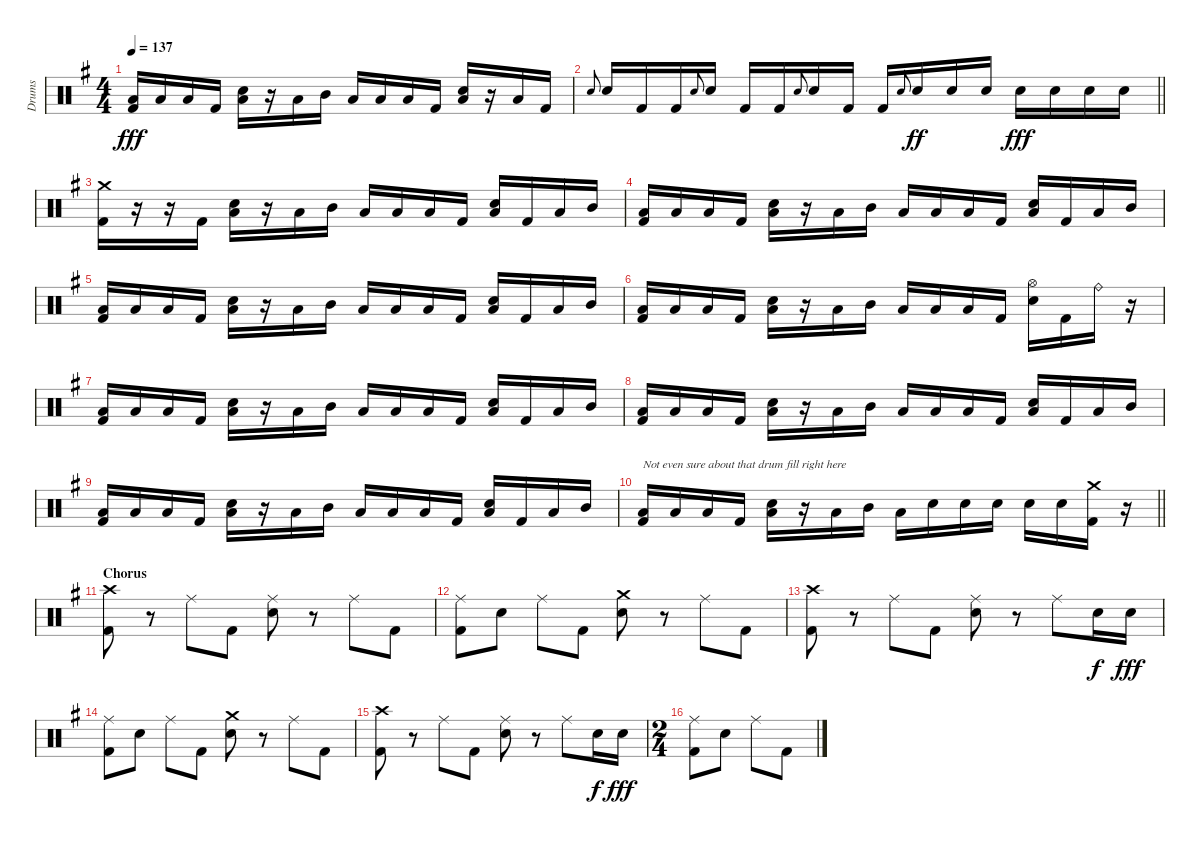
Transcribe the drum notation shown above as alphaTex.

\track ("Drums" "Drums") {instrument percussion}
\staff {score}
\articulation defaults
\ts (4 4)
\tempo 137
\clef neutral
\ks eminor
("Low Floor Tom (hit)" "Kick (hit) 2").16{dy fff} "Low Tom (hit)".16 "Low Floor Tom (hit)".16 "Kick (hit) 2".16 ("Electric Snare (hit)" "Low Floor Tom (hit)").16 r.16 "Low Floor Tom (hit)".16 "Mid Tom (hit)".16 "Low Floor Tom (hit)".16 "Low Tom (hit)".16 "Low Floor Tom (hit)".16 "Kick (hit) 2".16 ("Electric Snare (hit)" "Low Floor Tom (hit)").16 r.16 "Low Floor Tom (hit)".16 "Kick (hit) 2".16 |
\barLineRight lightlight "Electric Snare (hit)".8{gr onbeat} "Electric Snare (hit)".16 "Kick (hit) 2".16 "Kick (hit) 2".16 "Electric Snare (hit)".8{gr onbeat} "Electric Snare (hit)".16 "Kick (hit) 2".16 "Kick (hit) 2".16 "Electric Snare (hit)".8{gr onbeat} "Electric Snare (hit)".16 "Kick (hit) 2".16 "Kick (hit) 2".16 "Electric Snare (hit)".8{gr onbeat} "Electric Snare (hit)".16{dy ff} "Electric Snare (hit)".16 "Electric Snare (hit)".16 "Electric Snare (hit)".16{dy fff} "Electric Snare (hit)".16 "Electric Snare (hit)".16 "Electric Snare (hit)".16
|
("Crash medium (hit)" "Kick (hit) 2").16 r.16 r.16 "Kick (hit) 2".16 ("Electric Snare (hit)" "Low Floor Tom (hit)").16 r.16 "Low Floor Tom (hit)".16 "Mid Tom (hit)".16 "Low Floor Tom (hit)".16 "Low Tom (hit)".16 "Low Floor Tom (hit)".16 "Kick (hit) 2".16 ("Electric Snare (hit)" "Low Floor Tom (hit)").16 "Kick (hit) 2".16 "Low Floor Tom (hit)".16 "Mid Tom (hit)".16 |
("Low Floor Tom (hit)" "Kick (hit) 2").16 "Low Tom (hit)".16 "Low Floor Tom (hit)".16 "Kick (hit) 2".16 ("Electric Snare (hit)" "Low Floor Tom (hit)").16 r.16 "Low Floor Tom (hit)".16 "Mid Tom (hit)".16 "Low Floor Tom (hit)".16 "Low Tom (hit)".16 "Low Floor Tom (hit)".16 "Kick (hit) 2".16 ("Electric Snare (hit)" "Low Floor Tom (hit)").16 "Kick (hit) 2".16 "Low Floor Tom (hit)".16 "Mid Tom (hit)".16 |
("Low Floor Tom (hit)" "Kick (hit) 2").16 "Low Tom (hit)".16 "Low Floor Tom (hit)".16 "Kick (hit) 2".16 ("Electric Snare (hit)" "Low Floor Tom (hit)").16 r.16 "Low Floor Tom (hit)".16 "Mid Tom (hit)".16 "Low Floor Tom (hit)".16 "Low Tom (hit)".16 "Low Floor Tom (hit)".16 "Kick (hit) 2".16 ("Electric Snare (hit)" "Low Floor Tom (hit)").16 "Kick (hit) 2".16 "Low Floor Tom (hit)".16 "Mid Tom (hit)".16 |
("Low Floor Tom (hit)" "Kick (hit) 2").16 "Low Tom (hit)".16 "Low Floor Tom (hit)".16 "Kick (hit) 2".16 ("Electric Snare (hit)" "Low Floor Tom (hit)").16 r.16 "Low Floor Tom (hit)".16 "Mid Tom (hit)".16 "Low Floor Tom (hit)".16 "Low Tom (hit)".16 "Low Floor Tom (hit)".16 "Kick (hit) 2".16 ("Hi-Hat (open)" "Electric Snare (hit)").16 "Kick (hit) 2".16 "Ride (bell)".16 r.16 |
("Low Floor Tom (hit)" "Kick (hit) 2").16 "Low Tom (hit)".16 "Low Floor Tom (hit)".16 "Kick (hit) 2".16 ("Electric Snare (hit)" "Low Floor Tom (hit)").16 r.16 "Low Floor Tom (hit)".16 "Mid Tom (hit)".16 "Low Floor Tom (hit)".16 "Low Tom (hit)".16 "Low Floor Tom (hit)".16 "Kick (hit) 2".16 ("Electric Snare (hit)" "Low Floor Tom (hit)").16 "Kick (hit) 2".16 "Low Floor Tom (hit)".16 "Mid Tom (hit)".16 |
("Low Floor Tom (hit)" "Kick (hit) 2").16 "Low Tom (hit)".16 "Low Floor Tom (hit)".16 "Kick (hit) 2".16 ("Electric Snare (hit)" "Low Floor Tom (hit)").16 r.16 "Low Floor Tom (hit)".16 "Mid Tom (hit)".16 "Low Floor Tom (hit)".16 "Low Tom (hit)".16 "Low Floor Tom (hit)".16 "Kick (hit) 2".16 ("Electric Snare (hit)" "Low Floor Tom (hit)").16 "Kick (hit) 2".16 "Low Floor Tom (hit)".16 "Mid Tom (hit)".16 |
("Low Floor Tom (hit)" "Kick (hit) 2").16 "Low Tom (hit)".16 "Low Floor Tom (hit)".16 "Kick (hit) 2".16 ("Electric Snare (hit)" "Low Floor Tom (hit)").16 r.16 "Low Floor Tom (hit)".16 "Mid Tom (hit)".16 "Low Floor Tom (hit)".16 "Low Tom (hit)".16 "Low Floor Tom (hit)".16 "Kick (hit) 2".16 ("Electric Snare (hit)" "Low Floor Tom (hit)").16 "Kick (hit) 2".16 "Low Floor Tom (hit)".16 "Mid Tom (hit)".16 |
\barLineRight lightlight
("Low Floor Tom (hit)" "Kick (hit) 2").16{txt "Not even sure about that drum fill right here"} "Low Tom (hit)".16 "Low Floor Tom (hit)".16 "Kick (hit) 2".16 ("Electric Snare (hit)" "Low Floor Tom (hit)").16 r.16 "Low Floor Tom (hit)".16 "Mid Tom (hit)".16 "Low Floor Tom (hit)".16 "Electric Snare (hit)".16 "Electric Snare (hit)".16 "Electric Snare (hit)".16 "Electric Snare (hit)".16 "Electric Snare (hit)".16 ("Crash medium (hit)" "Kick (hit) 2").16 r.16 |
\section ("" "Chorus")
("Crash high (hit)" "Kick (hit) 2").8 r.8 "Ride (middle)".8 "Kick (hit) 2".8 ("Ride (middle)" "Electric Snare (hit)").8 r.8 "Ride (middle)".8 "Kick (hit) 2".8 |
("Ride (middle)" "Kick (hit) 2").8 "Electric Snare (hit)".8 "Ride (middle)".8 "Kick (hit) 2".8 ("Crash medium (hit)" "Electric Snare (hit)").8 r.8 "Ride (middle)".8 "Kick (hit) 2".8 |
("Crash high (hit)" "Kick (hit) 2").8 r.8 "Ride (middle)".8 "Kick (hit) 2".8 ("Ride (middle)" "Electric Snare (hit)").8 r.8 "Ride (middle)".8 "Electric Snare (hit)".16{dy f} "Electric Snare (hit)".16{dy fff} |
("Ride (middle)" "Kick (hit) 2").8 "Electric Snare (hit)".8 "Ride (middle)".8 "Kick (hit) 2".8 ("Crash medium (hit)" "Electric Snare (hit)").8 r.8 "Ride (middle)".8 "Kick (hit) 2".8 |
("Crash high (hit)" "Kick (hit) 2").8 r.8 "Ride (middle)".8 "Kick (hit) 2".8 ("Ride (middle)" "Electric Snare (hit)").8 r.8 "Ride (middle)".8 "Electric Snare (hit)".16{dy f} "Electric Snare (hit)".16{dy fff} |
\ts (2 4)
("Ride (middle)" "Kick (hit) 2").8 "Electric Snare (hit)".8 "Ride (middle)".8 "Kick (hit) 2".8
